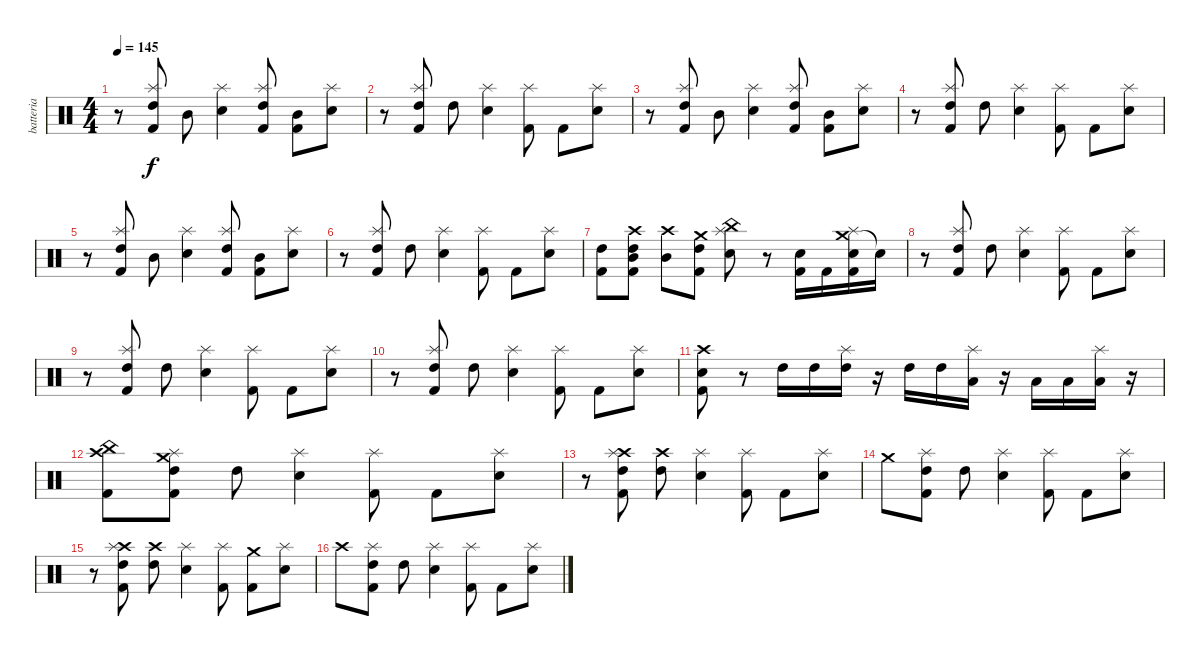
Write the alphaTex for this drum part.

\track ("batteria" "batteria") {instrument percussion}
\staff {score}
\articulation defaults
\ts (4 4)
\tempo 145
\clef neutral
\ks c
r.8{dy f} ("High Tom (hit)" "Splash (hit)" "Kick (hit) 2").8 "Mid Tom (hit)".8 ("Splash (hit)" "Electric Snare (hit)").4 ("High Tom (hit)" "Splash (hit)" "Kick (hit) 2").8 ("Mid Tom (hit)" "Kick (hit) 2").8 ("Splash (hit)" "Electric Snare (hit)").8 |
r.8 ("High Tom (hit)" "Splash (hit)" "Kick (hit) 2").8 "High Tom (hit)".8 ("Splash (hit)" "Electric Snare (hit)").4 ("Splash (hit)" "Kick (hit) 2").8 "Kick (hit) 2".8 ("Splash (hit)" "Electric Snare (hit)").8 |
r.8 ("High Tom (hit)" "Splash (hit)" "Kick (hit) 2").8 "Mid Tom (hit)".8 ("Splash (hit)" "Electric Snare (hit)").4 ("High Tom (hit)" "Splash (hit)" "Kick (hit) 2").8 ("Mid Tom (hit)" "Kick (hit) 2").8 ("Splash (hit)" "Electric Snare (hit)").8 |
r.8 ("High Tom (hit)" "Splash (hit)" "Kick (hit) 2").8 "High Tom (hit)".8 ("Splash (hit)" "Electric Snare (hit)").4 ("Splash (hit)" "Kick (hit) 2").8 "Kick (hit) 2".8 ("Splash (hit)" "Electric Snare (hit)").8 |
r.8 ("High Tom (hit)" "Splash (hit)" "Kick (hit) 2").8 "Mid Tom (hit)".8 ("Splash (hit)" "Electric Snare (hit)").4 ("High Tom (hit)" "Splash (hit)" "Kick (hit) 2").8 ("Mid Tom (hit)" "Kick (hit) 2").8 ("Splash (hit)" "Electric Snare (hit)").8 |
r.8 ("High Tom (hit)" "Splash (hit)" "Kick (hit) 2").8 "High Tom (hit)".8 ("Splash (hit)" "Electric Snare (hit)").4 ("Splash (hit)" "Kick (hit) 2").8 "Kick (hit) 2".8 ("Splash (hit)" "Electric Snare (hit)").8 |
("High Tom (hit)" "Kick (hit) 2").8 ("Crash high (hit)" "High Tom (hit)" "Kick (hit) 2" "Mid Tom (hit)").8 ("Crash high (hit)" "Mid Tom (hit)").8 ("Crash medium (hit)" "Kick (hit) 2" "High Tom (hit)").8 ("China (hit)" "Splash (hit)" "Electric Snare (hit)").8 r.8 ("Electric Snare (hit)" "Kick (hit) 2").16 "Kick (hit) 2".16 ("Crash medium (hit)" "Kick (hit) 2" "Splash (hit)" "Electric Snare (hit)").16 "Snare (hit)"{t}.16 |
r.8 ("High Tom (hit)" "Splash (hit)" "Kick (hit) 2").8 "High Tom (hit)".8 ("Splash (hit)" "Electric Snare (hit)").4 ("Splash (hit)" "Kick (hit) 2").8 "Kick (hit) 2".8 ("Splash (hit)" "Electric Snare (hit)").8 |
r.8 ("High Tom (hit)" "Splash (hit)" "Kick (hit) 2").8 "High Tom (hit)".8 ("Splash (hit)" "Electric Snare (hit)").4 ("Splash (hit)" "Kick (hit) 2").8 "Kick (hit) 2".8 ("Splash (hit)" "Electric Snare (hit)").8 |
r.8 ("High Tom (hit)" "Splash (hit)" "Kick (hit) 2").8 "High Tom (hit)".8 ("Splash (hit)" "Electric Snare (hit)").4 ("Splash (hit)" "Kick (hit) 2").8 "Kick (hit) 2".8 ("Splash (hit)" "Electric Snare (hit)").8 |
("Kick (hit) 2" "Electric Snare (hit)" "Crash high (hit)").8 r.8 "High Tom (hit)".16 "High Tom (hit)".16 ("Splash (hit)" "High Tom (hit)").16 r.16 "High Tom (hit)".16 "High Tom (hit)".16 ("Splash (hit)" "Low Tom (hit)").16 r.16 "Low Tom (hit)".16 "Low Tom (hit)".16 ("Splash (hit)" "Low Tom (hit)").16 r.16 |
("China (hit)" "Crash high (hit)" "Kick (hit) 2").8 ("Crash medium (hit)" "High Tom (hit)" "Splash (hit)" "Kick (hit) 2").8 "High Tom (hit)".8 ("Splash (hit)" "Electric Snare (hit)").4 ("Splash (hit)" "Kick (hit) 2").8 "Kick (hit) 2".8 ("Splash (hit)" "Electric Snare (hit)").8 |
r.8 ("Crash high (hit)" "High Tom (hit)" "Splash (hit)" "Kick (hit) 2").8 ("Crash high (hit)" "High Tom (hit)").8 ("Splash (hit)" "Electric Snare (hit)").4 ("Splash (hit)" "Kick (hit) 2").8 "Kick (hit) 2".8 ("Splash (hit)" "Electric Snare (hit)").8 |
"Crash medium (hit)".8 ("High Tom (hit)" "Splash (hit)" "Kick (hit) 2").8 "High Tom (hit)".8 ("Splash (hit)" "Electric Snare (hit)").4 ("Splash (hit)" "Kick (hit) 2").8 "Kick (hit) 2".8 ("Splash (hit)" "Electric Snare (hit)").8 |
r.8 ("Crash high (hit)" "High Tom (hit)" "Splash (hit)" "Kick (hit) 2").8 ("Crash high (hit)" "High Tom (hit)").8 ("Splash (hit)" "Electric Snare (hit)").4 ("Splash (hit)" "Kick (hit) 2").8 ("Crash medium (hit)" "Kick (hit) 2").8 ("Splash (hit)" "Electric Snare (hit)").8 |
"Crash high (hit)".8 ("High Tom (hit)" "Splash (hit)" "Kick (hit) 2").8 "High Tom (hit)".8 ("Splash (hit)" "Electric Snare (hit)").4 ("Splash (hit)" "Kick (hit) 2").8 "Kick (hit) 2".8 ("Splash (hit)" "Electric Snare (hit)").8
